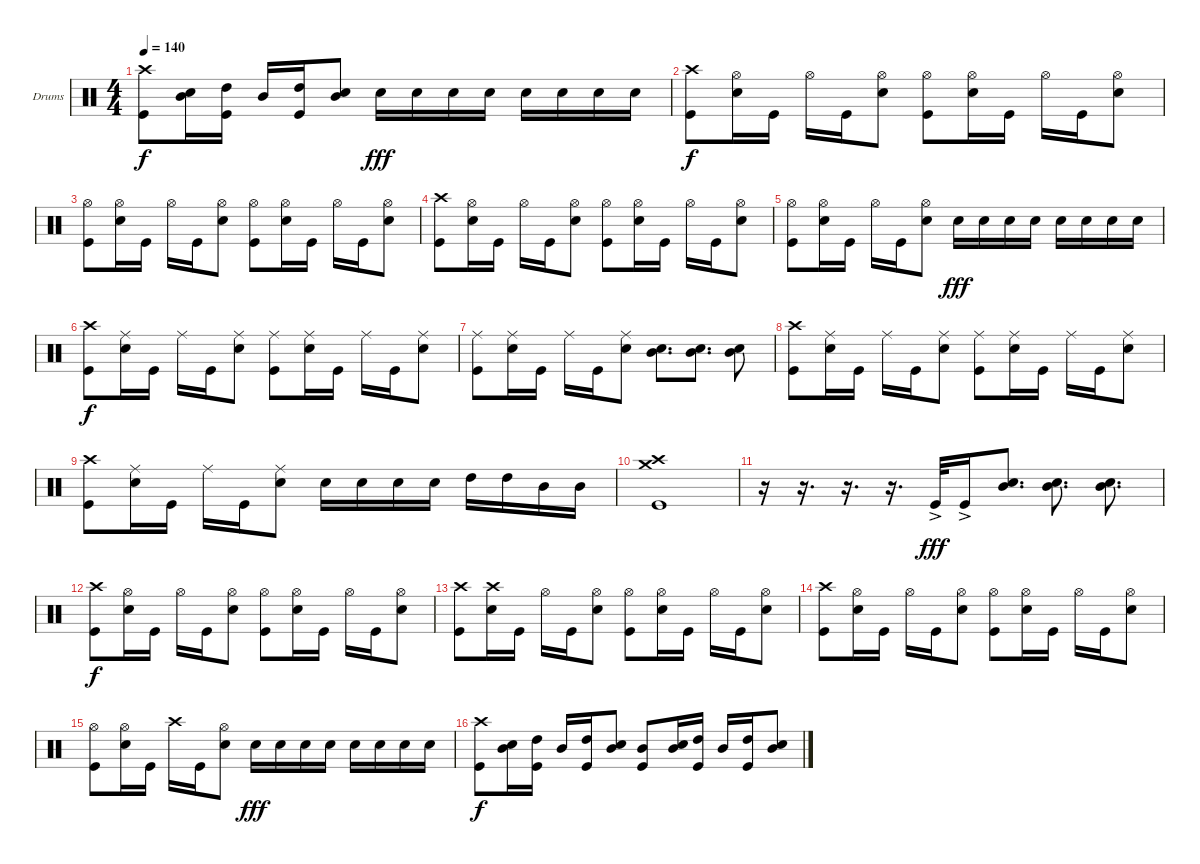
\bracketExtendMode groupsimilarinstruments
\firstSystemTrackNameOrientation horizontal
\otherSystemsTrackNameOrientation horizontal
\track ("Porutchik" "Drums") {instrument percussion}
\staff {score}
\articulation defaults
\ts (4 4)
\tempo 140
\clef neutral
\ks c
("Crash high (hit)" "Kick (hit)").8{dy f} ("Mid Tom (hit)" "Snare (hit) 2").16 ("High Tom (hit)" "Kick (hit)").16 "Mid Tom (hit)".16 ("High Tom (hit)" "Kick (hit)").16 ("Mid Tom (hit)" "Snare (hit) 2").8 "Snare (hit) 2".16{dy fff} "Snare (hit) 2".16 "Snare (hit) 2".16 "Snare (hit) 2".16 "Snare (hit) 2".16 "Snare (hit) 2".16 "Snare (hit) 2".16 "Snare (hit) 2".16 |
("Kick (hit)" "Crash high (hit)").8{dy f} ("Snare (hit) 2" "Hi-Hat (open)").16 "Kick (hit)".16 "Hi-Hat (open)".16 "Kick (hit)".16 ("Snare (hit) 2" "Hi-Hat (open)").8 ("Kick (hit)" "Hi-Hat (open)").8 ("Snare (hit) 2" "Hi-Hat (open)").16 "Kick (hit)".16 "Hi-Hat (open)".16 "Kick (hit)".16 ("Snare (hit) 2" "Hi-Hat (open)").8 |
("Kick (hit)" "Hi-Hat (open)").8 ("Snare (hit) 2" "Hi-Hat (open)").16 "Kick (hit)".16 "Hi-Hat (open)".16 "Kick (hit)".16 ("Snare (hit) 2" "Hi-Hat (open)").8 ("Kick (hit)" "Hi-Hat (open)").8 ("Snare (hit) 2" "Hi-Hat (open)").16 "Kick (hit)".16 "Hi-Hat (open)".16 "Kick (hit)".16 ("Snare (hit) 2" "Hi-Hat (open)").8 |
("Kick (hit)" "Crash high (hit)").8 ("Snare (hit) 2" "Hi-Hat (open)").16 "Kick (hit)".16 "Hi-Hat (open)".16 "Kick (hit)".16 ("Snare (hit) 2" "Hi-Hat (open)").8 ("Kick (hit)" "Hi-Hat (open)").8 ("Snare (hit) 2" "Hi-Hat (open)").16 "Kick (hit)".16 "Hi-Hat (open)".16 "Kick (hit)".16 ("Snare (hit) 2" "Hi-Hat (open)").8 |
("Kick (hit)" "Hi-Hat (open)").8 ("Snare (hit) 2" "Hi-Hat (open)").16 "Kick (hit)".16 "Hi-Hat (open)".16 "Kick (hit)".16 ("Snare (hit) 2" "Hi-Hat (open)").8 "Snare (hit) 2".16{dy fff} "Snare (hit) 2".16 "Snare (hit) 2".16 "Snare (hit) 2".16 "Snare (hit) 2".16 "Snare (hit) 2".16 "Snare (hit) 2".16 "Snare (hit) 2".16 |
("Kick (hit)" "Crash high (hit)").8{dy f} ("Snare (hit) 2" "Ride (middle)").16 "Kick (hit)".16 "Ride (middle)".16 "Kick (hit)".16 ("Snare (hit) 2" "Ride (middle)").8 ("Kick (hit)" "Ride (middle)").8 ("Snare (hit) 2" "Ride (middle)").16 "Kick (hit)".16 "Ride (middle)".16 "Kick (hit)".16 ("Snare (hit) 2" "Ride (middle)").8 |
("Kick (hit)" "Ride (middle)").8 ("Snare (hit) 2" "Ride (middle)").16 "Kick (hit)".16 "Ride (middle)".16 "Kick (hit)".16 ("Snare (hit) 2" "Ride (middle)").8 ("Mid Tom (hit)" "Snare (hit) 2").8{d} ("Mid Tom (hit)" "Snare (hit) 2").8{d} ("Mid Tom (hit)" "Snare (hit) 2").8 |
("Kick (hit)" "Crash high (hit)").8 ("Snare (hit) 2" "Ride (middle)").16 "Kick (hit)".16 "Ride (middle)".16 "Kick (hit)".16 ("Snare (hit) 2" "Ride (middle)").8 ("Kick (hit)" "Ride (middle)").8 ("Snare (hit) 2" "Ride (middle)").16 "Kick (hit)".16 "Ride (middle)".16 "Kick (hit)".16 ("Snare (hit) 2" "Ride (middle)").8 |
("Kick (hit)" "Crash high (hit)").8 ("Snare (hit) 2" "Ride (middle)").16 "Kick (hit)".16 "Ride (middle)".16 "Kick (hit)".16 ("Snare (hit) 2" "Ride (middle)").8 "Snare (hit) 2".16 "Snare (hit) 2".16 "Snare (hit) 2".16 "Snare (hit) 2".16 "High Tom (hit)".16 "High Tom (hit)".16 "Mid Tom (hit)".16 "Mid Tom (hit)".16 |
("Crash medium (hit)" "Crash high (hit)" "Kick (hit)").1 |
r.16 r.16{d} r.16{d} r.16{d} "Kick (hit)"{ac}.32{dy fff} "Kick (hit)"{ac}.16 ("Snare (hit) 2" "Mid Tom (hit)").8{d} ("Snare (hit) 2" "Mid Tom (hit)").8{d} ("Snare (hit) 2" "Mid Tom (hit)").8{d} |
("Kick (hit)" "Crash high (hit)").8{dy f} ("Snare (hit) 2" "Hi-Hat (open)").16 "Kick (hit)".16 "Hi-Hat (open)".16 "Kick (hit)".16 ("Snare (hit) 2" "Hi-Hat (open)").8 ("Kick (hit)" "Hi-Hat (open)").8 ("Snare (hit) 2" "Hi-Hat (open)").16 "Kick (hit)".16 "Hi-Hat (open)".16 "Kick (hit)".16 ("Snare (hit) 2" "Hi-Hat (open)").8 |
("Kick (hit)" "Crash high (hit)").8 ("Snare (hit) 2" "Crash high (hit)").16 "Kick (hit)".16 "Hi-Hat (open)".16 "Kick (hit)".16 ("Snare (hit) 2" "Hi-Hat (open)").8 ("Kick (hit)" "Hi-Hat (open)").8 ("Snare (hit) 2" "Hi-Hat (open)").16 "Kick (hit)".16 "Hi-Hat (open)".16 "Kick (hit)".16 ("Snare (hit) 2" "Hi-Hat (open)").8 |
("Kick (hit)" "Crash high (hit)").8 ("Snare (hit) 2" "Hi-Hat (open)").16 "Kick (hit)".16 "Hi-Hat (open)".16 "Kick (hit)".16 ("Snare (hit) 2" "Hi-Hat (open)").8 ("Kick (hit)" "Hi-Hat (open)").8 ("Snare (hit) 2" "Hi-Hat (open)").16 "Kick (hit)".16 "Hi-Hat (open)".16 "Kick (hit)".16 ("Snare (hit) 2" "Hi-Hat (open)").8 |
("Kick (hit)" "Hi-Hat (open)").8 ("Snare (hit) 2" "Hi-Hat (open)").16 "Kick (hit)".16 "Crash high (hit)".16 "Kick (hit)".16 ("Snare (hit) 2" "Hi-Hat (open)").8 "Snare (hit) 2".16{dy fff} "Snare (hit) 2".16 "Snare (hit) 2".16 "Snare (hit) 2".16 "Snare (hit) 2".16 "Snare (hit) 2".16 "Snare (hit) 2".16 "Snare (hit) 2".16 |
("Crash high (hit)" "Kick (hit)").8{dy f} ("Mid Tom (hit)" "Snare (hit) 2").16 ("High Tom (hit)" "Kick (hit)").16 "Mid Tom (hit)".16 ("High Tom (hit)" "Kick (hit)").16 ("Mid Tom (hit)" "Snare (hit) 2").8 ("Mid Tom (hit)" "Kick (hit)").8 ("Mid Tom (hit)" "Snare (hit) 2").16 ("High Tom (hit)" "Kick (hit)").16 "Mid Tom (hit)".16 ("High Tom (hit)" "Kick (hit)").16 ("Mid Tom (hit)" "Snare (hit) 2").8
